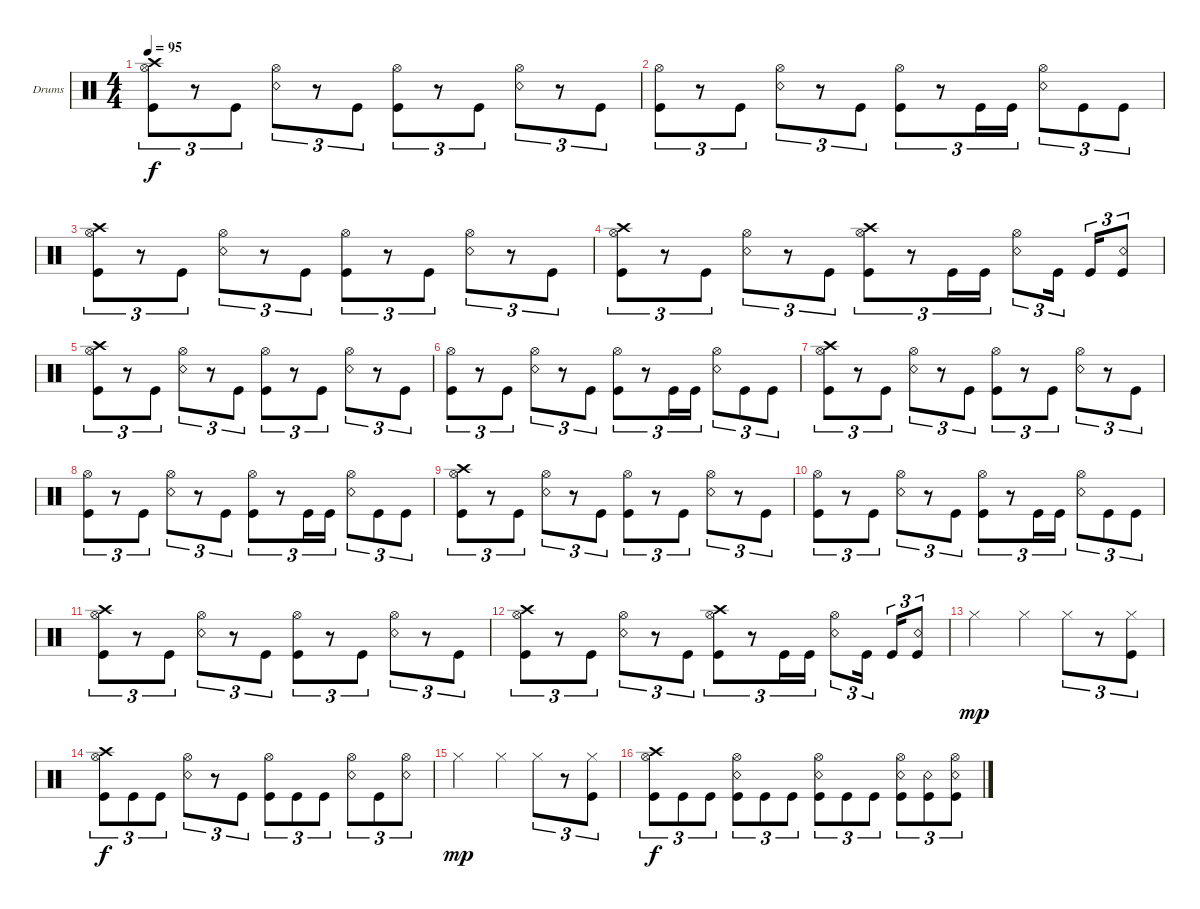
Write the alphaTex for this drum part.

\defaultSystemsLayout 4
\bracketExtendMode groupsimilarinstruments
\firstSystemTrackNameOrientation horizontal
\otherSystemsTrackNameOrientation horizontal
\track ("Drumkit" "Drums") {instrument percussion}
\staff {score}
\articulation defaults
\ts (4 4)
\tempo 95
\clef neutral
\ks c
("Hi-Hat (open)" "Kick (hit)" "Crash high (hit)").8{tu (3 2) dy f} r.8{tu (3 2)} "Kick (hit)".8{tu (3 2)} ("Hi-Hat (open)" "Snare (rim shot)").8{tu (3 2)} r.8{tu (3 2)} "Kick (hit)".8{tu (3 2)} ("Hi-Hat (open)" "Kick (hit)").8{tu (3 2)} r.8{tu (3 2)} "Kick (hit)".8{tu (3 2)} ("Hi-Hat (open)" "Snare (rim shot)").8{tu (3 2)} r.8{tu (3 2)} "Kick (hit)".8{tu (3 2)} |
("Hi-Hat (open)" "Kick (hit)").8{tu (3 2)} r.8{tu (3 2)} "Kick (hit)".8{tu (3 2)} ("Hi-Hat (open)" "Snare (rim shot)").8{tu (3 2)} r.8{tu (3 2)} "Kick (hit)".8{tu (3 2)} ("Hi-Hat (open)" "Kick (hit)").8{tu (3 2)} r.8{tu (3 2)} "Kick (hit)".16{tu (3 2)} "Kick (hit)".16{tu (3 2)} ("Hi-Hat (open)" "Snare (rim shot)").8{tu (3 2)} "Kick (hit)".8{tu (3 2)} "Kick (hit)".8{tu (3 2)} |
("Hi-Hat (open)" "Kick (hit)" "Crash high (hit)").8{tu (3 2)} r.8{tu (3 2)} "Kick (hit)".8{tu (3 2)} ("Hi-Hat (open)" "Snare (rim shot)").8{tu (3 2)} r.8{tu (3 2)} "Kick (hit)".8{tu (3 2)} ("Hi-Hat (open)" "Kick (hit)").8{tu (3 2)} r.8{tu (3 2)} "Kick (hit)".8{tu (3 2)} ("Hi-Hat (open)" "Snare (rim shot)").8{tu (3 2)} r.8{tu (3 2)} "Kick (hit)".8{tu (3 2)} |
("Hi-Hat (open)" "Kick (hit)" "Crash high (hit)").8{tu (3 2)} r.8{tu (3 2)} "Kick (hit)".8{tu (3 2)} ("Hi-Hat (open)" "Snare (rim shot)").8{tu (3 2)} r.8{tu (3 2)} "Kick (hit)".8{tu (3 2)} ("Hi-Hat (open)" "Kick (hit)" "Crash high (hit)").8{tu (3 2)} r.8{tu (3 2)} "Kick (hit)".16{tu (3 2)} "Kick (hit)".16{tu (3 2)} ("Hi-Hat (open)" "Snare (rim shot)").8{tu (3 2)} "Kick (hit)".16{tu (3 2)} "Kick (hit)".16{tu (3 2)} ("Kick (hit)" "Snare (rim shot)").8{tu (3 2)} |
("Hi-Hat (open)" "Kick (hit)" "Crash high (hit)").8{tu (3 2)} r.8{tu (3 2)} "Kick (hit)".8{tu (3 2)} ("Hi-Hat (open)" "Snare (rim shot)").8{tu (3 2)} r.8{tu (3 2)} "Kick (hit)".8{tu (3 2)} ("Hi-Hat (open)" "Kick (hit)").8{tu (3 2)} r.8{tu (3 2)} "Kick (hit)".8{tu (3 2)} ("Hi-Hat (open)" "Snare (rim shot)").8{tu (3 2)} r.8{tu (3 2)} "Kick (hit)".8{tu (3 2)} |
("Hi-Hat (open)" "Kick (hit)").8{tu (3 2)} r.8{tu (3 2)} "Kick (hit)".8{tu (3 2)} ("Hi-Hat (open)" "Snare (rim shot)").8{tu (3 2)} r.8{tu (3 2)} "Kick (hit)".8{tu (3 2)} ("Hi-Hat (open)" "Kick (hit)").8{tu (3 2)} r.8{tu (3 2)} "Kick (hit)".16{tu (3 2)} "Kick (hit)".16{tu (3 2)} ("Hi-Hat (open)" "Snare (rim shot)").8{tu (3 2)} "Kick (hit)".8{tu (3 2)} "Kick (hit)".8{tu (3 2)} |
("Hi-Hat (open)" "Kick (hit)" "Crash high (hit)").8{tu (3 2)} r.8{tu (3 2)} "Kick (hit)".8{tu (3 2)} ("Hi-Hat (open)" "Snare (rim shot)").8{tu (3 2)} r.8{tu (3 2)} "Kick (hit)".8{tu (3 2)} ("Hi-Hat (open)" "Kick (hit)").8{tu (3 2)} r.8{tu (3 2)} "Kick (hit)".8{tu (3 2)} ("Hi-Hat (open)" "Snare (rim shot)").8{tu (3 2)} r.8{tu (3 2)} "Kick (hit)".8{tu (3 2)} |
("Hi-Hat (open)" "Kick (hit)").8{tu (3 2)} r.8{tu (3 2)} "Kick (hit)".8{tu (3 2)} ("Hi-Hat (open)" "Snare (rim shot)").8{tu (3 2)} r.8{tu (3 2)} "Kick (hit)".8{tu (3 2)} ("Hi-Hat (open)" "Kick (hit)").8{tu (3 2)} r.8{tu (3 2)} "Kick (hit)".16{tu (3 2)} "Kick (hit)".16{tu (3 2)} ("Hi-Hat (open)" "Snare (rim shot)").8{tu (3 2)} "Kick (hit)".8{tu (3 2)} "Kick (hit)".8{tu (3 2)} |
("Hi-Hat (open)" "Kick (hit)" "Crash high (hit)").8{tu (3 2)} r.8{tu (3 2)} "Kick (hit)".8{tu (3 2)} ("Hi-Hat (open)" "Snare (rim shot)").8{tu (3 2)} r.8{tu (3 2)} "Kick (hit)".8{tu (3 2)} ("Hi-Hat (open)" "Kick (hit)").8{tu (3 2)} r.8{tu (3 2)} "Kick (hit)".8{tu (3 2)} ("Hi-Hat (open)" "Snare (rim shot)").8{tu (3 2)} r.8{tu (3 2)} "Kick (hit)".8{tu (3 2)} |
("Hi-Hat (open)" "Kick (hit)").8{tu (3 2)} r.8{tu (3 2)} "Kick (hit)".8{tu (3 2)} ("Hi-Hat (open)" "Snare (rim shot)").8{tu (3 2)} r.8{tu (3 2)} "Kick (hit)".8{tu (3 2)} ("Hi-Hat (open)" "Kick (hit)").8{tu (3 2)} r.8{tu (3 2)} "Kick (hit)".16{tu (3 2)} "Kick (hit)".16{tu (3 2)} ("Hi-Hat (open)" "Snare (rim shot)").8{tu (3 2)} "Kick (hit)".8{tu (3 2)} "Kick (hit)".8{tu (3 2)} |
("Hi-Hat (open)" "Kick (hit)" "Crash high (hit)").8{tu (3 2)} r.8{tu (3 2)} "Kick (hit)".8{tu (3 2)} ("Hi-Hat (open)" "Snare (rim shot)").8{tu (3 2)} r.8{tu (3 2)} "Kick (hit)".8{tu (3 2)} ("Hi-Hat (open)" "Kick (hit)").8{tu (3 2)} r.8{tu (3 2)} "Kick (hit)".8{tu (3 2)} ("Hi-Hat (open)" "Snare (rim shot)").8{tu (3 2)} r.8{tu (3 2)} "Kick (hit)".8{tu (3 2)} |
("Hi-Hat (open)" "Kick (hit)" "Crash high (hit)").8{tu (3 2)} r.8{tu (3 2)} "Kick (hit)".8{tu (3 2)} ("Hi-Hat (open)" "Snare (rim shot)").8{tu (3 2)} r.8{tu (3 2)} "Kick (hit)".8{tu (3 2)} ("Hi-Hat (open)" "Kick (hit)" "Crash high (hit)").8{tu (3 2)} r.8{tu (3 2)} "Kick (hit)".16{tu (3 2)} "Kick (hit)".16{tu (3 2)} ("Hi-Hat (open)" "Snare (rim shot)").8{tu (3 2)} "Kick (hit)".16{tu (3 2)} "Kick (hit)".16{tu (3 2)} ("Kick (hit)" "Snare (rim shot)").8{tu (3 2)} |
"Hi-Hat (closed)".2{dy mp} "Hi-Hat (closed)".4 "Hi-Hat (closed)".8{tu (3 2)} r.8{tu (3 2)} ("Hi-Hat (closed)" "Kick (hit)").8{tu (3 2)} |
("Hi-Hat (open)" "Crash high (hit)" "Kick (hit)").8{tu (3 2) dy f} "Kick (hit)".8{tu (3 2)} "Kick (hit)".8{tu (3 2)} ("Hi-Hat (open)" "Snare (rim shot)").8{tu (3 2)} r.8{tu (3 2)} "Kick (hit)".8{tu (3 2)} ("Hi-Hat (open)" "Kick (hit)").8{tu (3 2)} "Kick (hit)".8{tu (3 2)} "Kick (hit)".8{tu (3 2)} ("Hi-Hat (open)" "Snare (rim shot)").8{tu (3 2)} "Kick (hit)".8{tu (3 2)} ("Hi-Hat (open)" "Snare (rim shot)").8{tu (3 2)} |
"Hi-Hat (closed)".2{dy mp} "Hi-Hat (closed)".4 "Hi-Hat (closed)".8{tu (3 2)} r.8{tu (3 2)} ("Hi-Hat (closed)" "Kick (hit)").8{tu (3 2)} |
("Hi-Hat (open)" "Crash high (hit)" "Kick (hit)").8{tu (3 2) dy f} "Kick (hit)".8{tu (3 2)} "Kick (hit)".8{tu (3 2)} ("Hi-Hat (open)" "Snare (rim shot)" "Kick (hit)").8{tu (3 2)} "Kick (hit)".8{tu (3 2)} "Kick (hit)".8{tu (3 2)} ("Hi-Hat (open)" "Kick (hit)" "Snare (rim shot)").8{tu (3 2)} "Kick (hit)".8{tu (3 2)} "Kick (hit)".8{tu (3 2)} ("Hi-Hat (open)" "Snare (rim shot)" "Kick (hit)").8{tu (3 2)} ("Kick (hit)" "Snare (rim shot)").8{tu (3 2)} ("Hi-Hat (open)" "Snare (rim shot)" "Kick (hit)").8{tu (3 2)}
